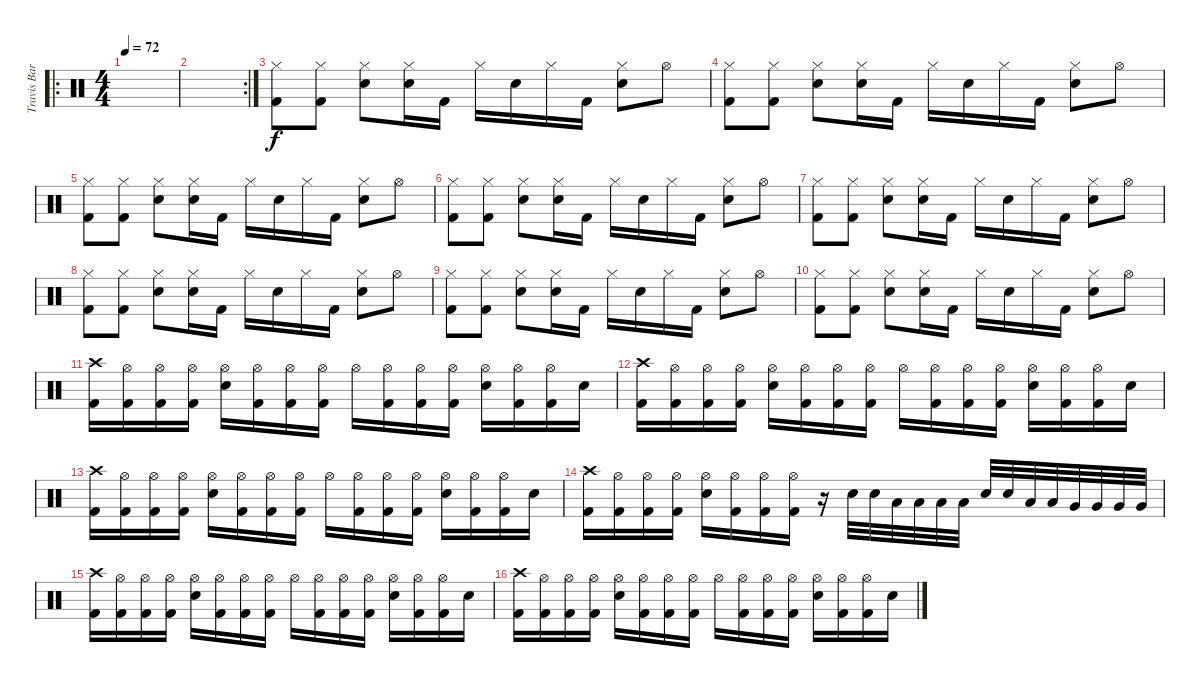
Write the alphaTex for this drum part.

\track ("Travis Barker" "Travis Bar") {instrument percussion}
\staff {score}
\articulation defaults
\ro
\ts (4 4)
\tempo 72
\clef neutral
\ks c
|
\rc 2
|
("Hi-Hat (closed)" "Kick (hit) 2").8 ("Hi-Hat (closed)" "Kick (hit) 2").8 ("Hi-Hat (closed)" "Electric Snare (hit)").8 ("Hi-Hat (closed)" "Electric Snare (hit)").16 "Kick (hit) 2".16 "Hi-Hat (closed)".16 "Electric Snare (hit)".16 "Hi-Hat (closed)".16 "Kick (hit) 2".16 ("Hi-Hat (closed)" "Electric Snare (hit)").8 "Hi-Hat (open)".8 |
("Hi-Hat (closed)" "Kick (hit) 2").8 ("Hi-Hat (closed)" "Kick (hit) 2").8 ("Hi-Hat (closed)" "Electric Snare (hit)").8 ("Hi-Hat (closed)" "Electric Snare (hit)").16 "Kick (hit) 2".16 "Hi-Hat (closed)".16 "Electric Snare (hit)".16 "Hi-Hat (closed)".16 "Kick (hit) 2".16 ("Hi-Hat (closed)" "Electric Snare (hit)").8 "Hi-Hat (open)".8 |
("Hi-Hat (closed)" "Kick (hit) 2").8 ("Hi-Hat (closed)" "Kick (hit) 2").8 ("Hi-Hat (closed)" "Electric Snare (hit)").8 ("Hi-Hat (closed)" "Electric Snare (hit)").16 "Kick (hit) 2".16 "Hi-Hat (closed)".16 "Electric Snare (hit)".16 "Hi-Hat (closed)".16 "Kick (hit) 2".16 ("Hi-Hat (closed)" "Electric Snare (hit)").8 "Hi-Hat (open)".8 |
("Hi-Hat (closed)" "Kick (hit) 2").8 ("Hi-Hat (closed)" "Kick (hit) 2").8 ("Hi-Hat (closed)" "Electric Snare (hit)").8 ("Hi-Hat (closed)" "Electric Snare (hit)").16 "Kick (hit) 2".16 "Hi-Hat (closed)".16 "Electric Snare (hit)".16 "Hi-Hat (closed)".16 "Kick (hit) 2".16 ("Hi-Hat (closed)" "Electric Snare (hit)").8 "Hi-Hat (open)".8 |
("Hi-Hat (closed)" "Kick (hit) 2").8 ("Hi-Hat (closed)" "Kick (hit) 2").8 ("Hi-Hat (closed)" "Electric Snare (hit)").8 ("Hi-Hat (closed)" "Electric Snare (hit)").16 "Kick (hit) 2".16 "Hi-Hat (closed)".16 "Electric Snare (hit)".16 "Hi-Hat (closed)".16 "Kick (hit) 2".16 ("Hi-Hat (closed)" "Electric Snare (hit)").8 "Hi-Hat (open)".8 |
("Hi-Hat (closed)" "Kick (hit) 2").8 ("Hi-Hat (closed)" "Kick (hit) 2").8 ("Hi-Hat (closed)" "Electric Snare (hit)").8 ("Hi-Hat (closed)" "Electric Snare (hit)").16 "Kick (hit) 2".16 "Hi-Hat (closed)".16 "Electric Snare (hit)".16 "Hi-Hat (closed)".16 "Kick (hit) 2".16 ("Hi-Hat (closed)" "Electric Snare (hit)").8 "Hi-Hat (open)".8 |
("Hi-Hat (closed)" "Kick (hit) 2").8 ("Hi-Hat (closed)" "Kick (hit) 2").8 ("Hi-Hat (closed)" "Electric Snare (hit)").8 ("Hi-Hat (closed)" "Electric Snare (hit)").16 "Kick (hit) 2".16 "Hi-Hat (closed)".16 "Electric Snare (hit)".16 "Hi-Hat (closed)".16 "Kick (hit) 2".16 ("Hi-Hat (closed)" "Electric Snare (hit)").8 "Hi-Hat (open)".8 |
("Hi-Hat (closed)" "Kick (hit) 2").8 ("Hi-Hat (closed)" "Kick (hit) 2").8 ("Hi-Hat (closed)" "Electric Snare (hit)").8 ("Hi-Hat (closed)" "Electric Snare (hit)").16 "Kick (hit) 2".16 "Hi-Hat (closed)".16 "Electric Snare (hit)".16 "Hi-Hat (closed)".16 "Kick (hit) 2".16 ("Hi-Hat (closed)" "Electric Snare (hit)").8 "Hi-Hat (open)".8 |
("Crash high (hit)" "Kick (hit) 2").16 ("Hi-Hat (open)" "Kick (hit) 2").16 ("Hi-Hat (open)" "Kick (hit) 2").16 ("Hi-Hat (open)" "Kick (hit) 2").16 ("Hi-Hat (open)" "Electric Snare (hit)").16 ("Hi-Hat (open)" "Kick (hit) 2").16 ("Hi-Hat (open)" "Kick (hit) 2").16 ("Hi-Hat (open)" "Kick (hit) 2").16 "Hi-Hat (open)".16 ("Hi-Hat (open)" "Kick (hit) 2").16 ("Hi-Hat (open)" "Kick (hit) 2").16 ("Hi-Hat (open)" "Kick (hit) 2").16 ("Hi-Hat (open)" "Electric Snare (hit)").16 ("Hi-Hat (open)" "Kick (hit) 2").16 ("Hi-Hat (open)" "Kick (hit) 2").16 "Electric Snare (hit)".16 |
("Crash high (hit)" "Kick (hit) 2").16 ("Hi-Hat (open)" "Kick (hit) 2").16 ("Hi-Hat (open)" "Kick (hit) 2").16 ("Hi-Hat (open)" "Kick (hit) 2").16 ("Hi-Hat (open)" "Electric Snare (hit)").16 ("Hi-Hat (open)" "Kick (hit) 2").16 ("Hi-Hat (open)" "Kick (hit) 2").16 ("Hi-Hat (open)" "Kick (hit) 2").16 "Hi-Hat (open)".16 ("Hi-Hat (open)" "Kick (hit) 2").16 ("Hi-Hat (open)" "Kick (hit) 2").16 ("Hi-Hat (open)" "Kick (hit) 2").16 ("Hi-Hat (open)" "Electric Snare (hit)").16 ("Hi-Hat (open)" "Kick (hit) 2").16 ("Hi-Hat (open)" "Kick (hit) 2").16 "Electric Snare (hit)".16 |
("Crash high (hit)" "Kick (hit) 2").16 ("Hi-Hat (open)" "Kick (hit) 2").16 ("Hi-Hat (open)" "Kick (hit) 2").16 ("Hi-Hat (open)" "Kick (hit) 2").16 ("Hi-Hat (open)" "Electric Snare (hit)").16 ("Hi-Hat (open)" "Kick (hit) 2").16 ("Hi-Hat (open)" "Kick (hit) 2").16 ("Hi-Hat (open)" "Kick (hit) 2").16 "Hi-Hat (open)".16 ("Hi-Hat (open)" "Kick (hit) 2").16 ("Hi-Hat (open)" "Kick (hit) 2").16 ("Hi-Hat (open)" "Kick (hit) 2").16 ("Hi-Hat (open)" "Electric Snare (hit)").16 ("Hi-Hat (open)" "Kick (hit) 2").16 ("Hi-Hat (open)" "Kick (hit) 2").16 "Electric Snare (hit)".16 |
("Crash high (hit)" "Kick (hit) 2").16 ("Hi-Hat (open)" "Kick (hit) 2").16 ("Hi-Hat (open)" "Kick (hit) 2").16 ("Hi-Hat (open)" "Kick (hit) 2").16 ("Hi-Hat (open)" "Electric Snare (hit)").16 ("Hi-Hat (open)" "Kick (hit) 2").16 ("Hi-Hat (open)" "Kick (hit) 2").16 ("Hi-Hat (open)" "Kick (hit) 2").16 r.16 "Electric Snare (hit)".32 "Electric Snare (hit)".32 "Low Tom (hit)".32 "Low Tom (hit)".32 "Low Tom (hit)".32 "Low Tom (hit)".32 "Electric Snare (hit)".32 "Electric Snare (hit)".32 "Low Tom (hit)".32 "Low Tom (hit)".32 "Very Low Tom (hit)".32 "Very Low Tom (hit)".32 "Very Low Tom (hit)".32 "Very Low Tom (hit)".32 |
("Crash high (hit)" "Kick (hit) 2").16 ("Hi-Hat (open)" "Kick (hit) 2").16 ("Hi-Hat (open)" "Kick (hit) 2").16 ("Hi-Hat (open)" "Kick (hit) 2").16 ("Hi-Hat (open)" "Electric Snare (hit)").16 ("Hi-Hat (open)" "Kick (hit) 2").16 ("Hi-Hat (open)" "Kick (hit) 2").16 ("Hi-Hat (open)" "Kick (hit) 2").16 "Hi-Hat (open)".16 ("Hi-Hat (open)" "Kick (hit) 2").16 ("Hi-Hat (open)" "Kick (hit) 2").16 ("Hi-Hat (open)" "Kick (hit) 2").16 ("Hi-Hat (open)" "Electric Snare (hit)").16 ("Hi-Hat (open)" "Kick (hit) 2").16 ("Hi-Hat (open)" "Kick (hit) 2").16 "Electric Snare (hit)".16 |
("Crash high (hit)" "Kick (hit) 2").16 ("Hi-Hat (open)" "Kick (hit) 2").16 ("Hi-Hat (open)" "Kick (hit) 2").16 ("Hi-Hat (open)" "Kick (hit) 2").16 ("Hi-Hat (open)" "Electric Snare (hit)").16 ("Hi-Hat (open)" "Kick (hit) 2").16 ("Hi-Hat (open)" "Kick (hit) 2").16 ("Hi-Hat (open)" "Kick (hit) 2").16 "Hi-Hat (open)".16 ("Hi-Hat (open)" "Kick (hit) 2").16 ("Hi-Hat (open)" "Kick (hit) 2").16 ("Hi-Hat (open)" "Kick (hit) 2").16 ("Hi-Hat (open)" "Electric Snare (hit)").16 ("Hi-Hat (open)" "Kick (hit) 2").16 ("Hi-Hat (open)" "Kick (hit) 2").16 "Electric Snare (hit)".16
